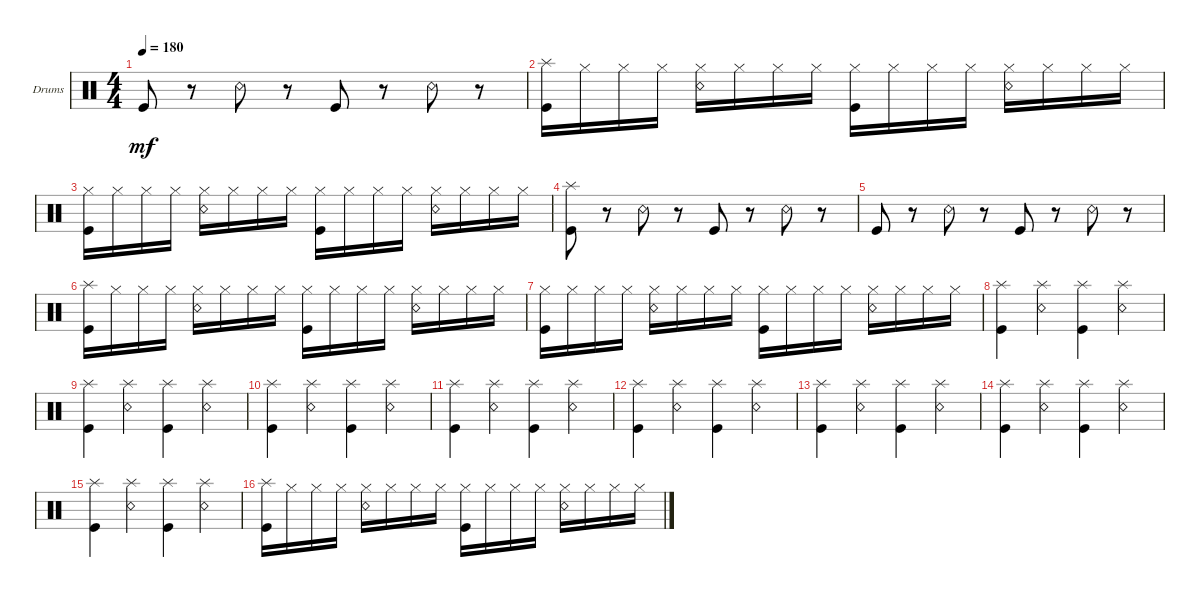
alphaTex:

\defaultSystemsLayout 4
\bracketExtendMode groupsimilarinstruments
\firstSystemTrackNameOrientation horizontal
\otherSystemsTrackNameOrientation horizontal
\track ("Drumkit" "Drums") {instrument percussion}
\staff {score}
\articulation defaults
\ts (4 4)
\tempo 180
\clef neutral
\scale
0.333333
\ks c "Kick (hit)".8{dy mf}
r.8 "Snare (rim shot)".8 r.8 "Kick (hit)".8 r.8 "Snare (rim shot)".8 r.8 |
\scale
0.333333 ("Kick (hit)" "Splash (hit)").16 "Hi-Hat (closed)".16 "Hi-Hat (closed)".16 "Hi-Hat (closed)".16 ("Hi-Hat (closed)" "Snare (rim shot)").16 "Hi-Hat (closed)".16 "Hi-Hat (closed)".16 "Hi-Hat (closed)".16 ("Hi-Hat (closed)" "Kick (hit)").16 "Hi-Hat (closed)".16 "Hi-Hat (closed)".16 "Hi-Hat (closed)".16 ("Hi-Hat (closed)" "Snare (rim shot)").16 "Hi-Hat (closed)".16 "Hi-Hat (closed)".16 "Hi-Hat (closed)".16 |
\scale
0.333333 ("Kick (hit)" "Hi-Hat (closed)").16 "Hi-Hat (closed)".16 "Hi-Hat (closed)".16 "Hi-Hat (closed)".16 ("Hi-Hat (closed)" "Snare (rim shot)").16 "Hi-Hat (closed)".16 "Hi-Hat (closed)".16 "Hi-Hat (closed)".16 ("Hi-Hat (closed)" "Kick (hit)").16 "Hi-Hat (closed)".16 "Hi-Hat (closed)".16 "Hi-Hat (closed)".16 ("Hi-Hat (closed)" "Snare (rim shot)").16 "Hi-Hat (closed)".16 "Hi-Hat (closed)".16 "Hi-Hat (closed)".16 |
\scale
0.333333 ("Kick (hit)" "Splash (hit)").8 r.8 "Snare (rim shot)".8 r.8 "Kick (hit)".8 r.8 "Snare (rim shot)".8 r.8 |
\scale
0.333333 "Kick (hit)".8 r.8 "Snare (rim shot)".8 r.8 "Kick (hit)".8 r.8 "Snare (rim shot)".8 r.8 |
\scale
0.333333 ("Kick (hit)" "Splash (hit)").16 "Hi-Hat (closed)".16 "Hi-Hat (closed)".16 "Hi-Hat (closed)".16 ("Hi-Hat (closed)" "Snare (rim shot)").16 "Hi-Hat (closed)".16 "Hi-Hat (closed)".16 "Hi-Hat (closed)".16 ("Hi-Hat (closed)" "Kick (hit)").16 "Hi-Hat (closed)".16 "Hi-Hat (closed)".16 "Hi-Hat (closed)".16 ("Hi-Hat (closed)" "Snare (rim shot)").16 "Hi-Hat (closed)".16 "Hi-Hat (closed)".16 "Hi-Hat (closed)".16 |
\scale
0.333333 ("Kick (hit)" "Hi-Hat (closed)").16 "Hi-Hat (closed)".16 "Hi-Hat (closed)".16 "Hi-Hat (closed)".16 ("Hi-Hat (closed)" "Snare (rim shot)").16 "Hi-Hat (closed)".16 "Hi-Hat (closed)".16 "Hi-Hat (closed)".16 ("Hi-Hat (closed)" "Kick (hit)").16 "Hi-Hat (closed)".16 "Hi-Hat (closed)".16 "Hi-Hat (closed)".16 ("Hi-Hat (closed)" "Snare (rim shot)").16 "Hi-Hat (closed)".16 "Hi-Hat (closed)".16 "Hi-Hat (closed)".16 |
\scale
0.333333 ("Kick (hit)" "Splash (hit)").4 ("Snare (rim shot)" "Splash (hit)").4 ("Kick (hit)" "Splash (hit)").4 ("Snare (rim shot)" "Splash (hit)").4 |
\scale
0.333333 ("Kick (hit)" "Splash (hit)").4 ("Snare (rim shot)" "Splash (hit)").4 ("Kick (hit)" "Splash (hit)").4 ("Snare (rim shot)" "Splash (hit)").4 |
\scale
0.333333 ("Kick (hit)" "Splash (hit)").4 ("Snare (rim shot)" "Splash (hit)").4 ("Kick (hit)" "Splash (hit)").4 ("Snare (rim shot)" "Splash (hit)").4 |
\scale
0.333333 ("Kick (hit)" "Splash (hit)").4 ("Snare (rim shot)" "Splash (hit)").4 ("Kick (hit)" "Splash (hit)").4 ("Snare (rim shot)" "Splash (hit)").4 |
\scale
0.333333 ("Kick (hit)" "Splash (hit)").4 ("Snare (rim shot)" "Splash (hit)").4 ("Kick (hit)" "Splash (hit)").4 ("Snare (rim shot)" "Splash (hit)").4 |
\scale
0.333333 ("Kick (hit)" "Splash (hit)").4 ("Snare (rim shot)" "Splash (hit)").4 ("Kick (hit)" "Splash (hit)").4 ("Snare (rim shot)" "Splash (hit)").4 |
\scale
0.333333 ("Kick (hit)" "Splash (hit)").4 ("Snare (rim shot)" "Splash (hit)").4 ("Kick (hit)" "Splash (hit)").4 ("Snare (rim shot)" "Splash (hit)").4 |
\scale
0.333333 ("Kick (hit)" "Splash (hit)").4 ("Snare (rim shot)" "Splash (hit)").4 ("Kick (hit)" "Splash (hit)").4 ("Snare (rim shot)" "Splash (hit)").4 |
\scale
0.333333 ("Kick (hit)" "Splash (hit)").16 "Hi-Hat (closed)".16 "Hi-Hat (closed)".16 "Hi-Hat (closed)".16 ("Hi-Hat (closed)" "Snare (rim shot)").16 "Hi-Hat (closed)".16 "Hi-Hat (closed)".16 "Hi-Hat (closed)".16 ("Hi-Hat (closed)" "Kick (hit)").16 "Hi-Hat (closed)".16 "Hi-Hat (closed)".16 "Hi-Hat (closed)".16 ("Hi-Hat (closed)" "Snare (rim shot)").16 "Hi-Hat (closed)".16 "Hi-Hat (closed)".16 "Hi-Hat (closed)".16
